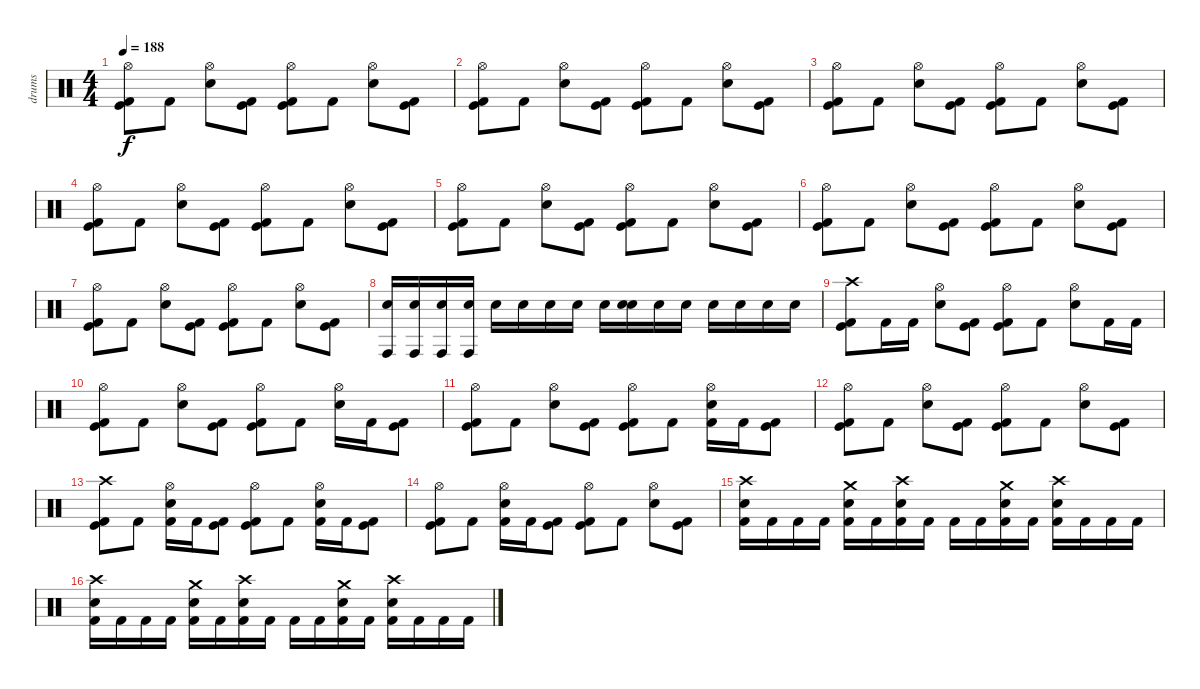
\track ("drums" "drums") {instrument percussion}
\staff {score}
\articulation defaults
\ts (4 4)
\tempo 188
\clef neutral
\ks c
("Hi-Hat (open)" "Kick (hit)" "Kick (hit) 2").8{dy f} "Kick (hit) 2".8 ("Hi-Hat (open)" "Snare (hit) 2").8 ("Kick (hit)" "Kick (hit) 2").8 ("Hi-Hat (open)" "Kick (hit)" "Kick (hit) 2").8 "Kick (hit) 2".8 ("Hi-Hat (open)" "Snare (hit) 2").8 ("Kick (hit)" "Kick (hit) 2").8 |
("Hi-Hat (open)" "Kick (hit)" "Kick (hit) 2").8 "Kick (hit) 2".8 ("Hi-Hat (open)" "Snare (hit) 2").8 ("Kick (hit)" "Kick (hit) 2").8 ("Hi-Hat (open)" "Kick (hit)" "Kick (hit) 2").8 "Kick (hit) 2".8 ("Hi-Hat (open)" "Snare (hit) 2").8 ("Kick (hit)" "Kick (hit) 2").8 |
("Hi-Hat (open)" "Kick (hit)" "Kick (hit) 2").8 "Kick (hit) 2".8 ("Hi-Hat (open)" "Snare (hit) 2").8 ("Kick (hit)" "Kick (hit) 2").8 ("Hi-Hat (open)" "Kick (hit)" "Kick (hit) 2").8 "Kick (hit) 2".8 ("Hi-Hat (open)" "Snare (hit) 2").8 ("Kick (hit)" "Kick (hit) 2").8 |
("Hi-Hat (open)" "Kick (hit)" "Kick (hit) 2").8 "Kick (hit) 2".8 ("Hi-Hat (open)" "Snare (hit) 2").8 ("Kick (hit)" "Kick (hit) 2").8 ("Hi-Hat (open)" "Kick (hit)" "Kick (hit) 2").8 "Kick (hit) 2".8 ("Hi-Hat (open)" "Snare (hit) 2").8 ("Kick (hit)" "Kick (hit) 2").8 |
("Hi-Hat (open)" "Kick (hit)" "Kick (hit) 2").8 "Kick (hit) 2".8 ("Hi-Hat (open)" "Snare (hit) 2").8 ("Kick (hit)" "Kick (hit) 2").8 ("Hi-Hat (open)" "Kick (hit)" "Kick (hit) 2").8 "Kick (hit) 2".8 ("Hi-Hat (open)" "Snare (hit) 2").8 ("Kick (hit)" "Kick (hit) 2").8 |
("Hi-Hat (open)" "Kick (hit)" "Kick (hit) 2").8 "Kick (hit) 2".8 ("Hi-Hat (open)" "Snare (hit) 2").8 ("Kick (hit)" "Kick (hit) 2").8 ("Hi-Hat (open)" "Kick (hit)" "Kick (hit) 2").8 "Kick (hit) 2".8 ("Hi-Hat (open)" "Snare (hit) 2").8 ("Kick (hit)" "Kick (hit) 2").8 |
("Hi-Hat (open)" "Kick (hit)" "Kick (hit) 2").8 "Kick (hit) 2".8 ("Hi-Hat (open)" "Snare (hit) 2").8 ("Kick (hit)" "Kick (hit) 2").8 ("Hi-Hat (open)" "Kick (hit)" "Kick (hit) 2").8 "Kick (hit) 2".8 ("Hi-Hat (open)" "Snare (hit) 2").8 ("Kick (hit)" "Kick (hit) 2").8 |
("Electric Snare (hit)" "Conga high (hit)").16 ("Electric Snare (hit)" "Conga high (hit)").16 ("Electric Snare (hit)" "Conga high (hit)").16 ("Electric Snare (hit)" "Conga high (hit)").16 "Electric Snare (hit)".16 "Electric Snare (hit)".16 "Electric Snare (hit)".16 "Electric Snare (hit)".16 "Electric Snare (hit)".16 ("Electric Snare (hit)" "Electric Snare (hit)").16 "Electric Snare (hit)".16 "Electric Snare (hit)".16 "Electric Snare (hit)".16 "Electric Snare (hit)".16 "Electric Snare (hit)".16 "Electric Snare (hit)".16 |
("Crash high (hit)" "Kick (hit)" "Kick (hit) 2").8 "Kick (hit) 2".16 "Kick (hit) 2".16 ("Hi-Hat (open)" "Snare (hit) 2").8 ("Kick (hit)" "Kick (hit) 2").8 ("Hi-Hat (open)" "Kick (hit)" "Kick (hit) 2").8 "Kick (hit) 2".8 ("Hi-Hat (open)" "Snare (hit) 2").8 "Kick (hit) 2".16 "Kick (hit) 2".16 |
("Hi-Hat (open)" "Kick (hit)" "Kick (hit) 2").8 "Kick (hit) 2".8 ("Hi-Hat (open)" "Snare (hit) 2").8 ("Kick (hit)" "Kick (hit) 2").8 ("Hi-Hat (open)" "Kick (hit)" "Kick (hit) 2").8 "Kick (hit) 2".8 ("Hi-Hat (open)" "Snare (hit) 2").16 "Kick (hit) 2".16 ("Kick (hit)" "Kick (hit) 2").8 |
("Hi-Hat (open)" "Kick (hit)" "Kick (hit) 2").8 "Kick (hit) 2".8 ("Hi-Hat (open)" "Snare (hit) 2").8 ("Kick (hit)" "Kick (hit) 2").8 ("Hi-Hat (open)" "Kick (hit)" "Kick (hit) 2").8 "Kick (hit) 2".8 ("Hi-Hat (open)" "Snare (hit) 2" "Kick (hit) 2").16 "Kick (hit) 2".16 ("Kick (hit)" "Kick (hit) 2").8 |
("Hi-Hat (open)" "Kick (hit)" "Kick (hit) 2").8 "Kick (hit) 2".8 ("Hi-Hat (open)" "Snare (hit) 2").8 ("Kick (hit)" "Kick (hit) 2").8 ("Hi-Hat (open)" "Kick (hit)" "Kick (hit) 2").8 "Kick (hit) 2".8 ("Hi-Hat (open)" "Snare (hit) 2").8 ("Kick (hit)" "Kick (hit) 2").8 |
("Crash high (hit)" "Kick (hit)" "Kick (hit) 2").8 "Kick (hit) 2".8 ("Hi-Hat (open)" "Snare (hit) 2" "Kick (hit) 2").16 "Kick (hit) 2".16 ("Kick (hit)" "Kick (hit) 2").8 ("Hi-Hat (open)" "Kick (hit)" "Kick (hit) 2").8 "Kick (hit) 2".8 ("Hi-Hat (open)" "Snare (hit) 2" "Kick (hit) 2").16 "Kick (hit) 2".16 ("Kick (hit)" "Kick (hit) 2").8 |
("Hi-Hat (open)" "Kick (hit)" "Kick (hit) 2").8 "Kick (hit) 2".8 ("Hi-Hat (open)" "Snare (hit) 2" "Kick (hit) 2").16 "Kick (hit) 2".16 ("Kick (hit)" "Kick (hit) 2").8 ("Hi-Hat (open)" "Kick (hit)" "Kick (hit) 2").8 "Kick (hit) 2".8 ("Hi-Hat (open)" "Snare (hit) 2").8 ("Kick (hit)" "Kick (hit) 2").8 |
("Crash high (hit)" "Snare (hit) 2" "Kick (hit) 2").16 "Kick (hit) 2".16 "Kick (hit) 2".16 "Kick (hit) 2".16 ("Crash medium (hit)" "Snare (hit) 2" "Kick (hit) 2").16 "Kick (hit) 2".16 ("Crash high (hit)" "Snare (hit) 2" "Kick (hit) 2").16 "Kick (hit) 2".16 "Kick (hit) 2".16 "Kick (hit) 2".16 ("Crash medium (hit)" "Snare (hit) 2" "Kick (hit) 2").16 "Kick (hit) 2".16 ("Crash high (hit)" "Snare (hit) 2" "Kick (hit) 2").16 "Kick (hit) 2".16 "Kick (hit) 2".16 "Kick (hit) 2".16 |
("Crash high (hit)" "Snare (hit) 2" "Kick (hit) 2").16 "Kick (hit) 2".16 "Kick (hit) 2".16 "Kick (hit) 2".16 ("Crash medium (hit)" "Snare (hit) 2" "Kick (hit) 2").16 "Kick (hit) 2".16 ("Crash high (hit)" "Snare (hit) 2" "Kick (hit) 2").16 "Kick (hit) 2".16 "Kick (hit) 2".16 "Kick (hit) 2".16 ("Crash medium (hit)" "Snare (hit) 2" "Kick (hit) 2").16 "Kick (hit) 2".16 ("Crash high (hit)" "Snare (hit) 2" "Kick (hit) 2").16 "Kick (hit) 2".16 "Kick (hit) 2".16 "Kick (hit) 2".16
